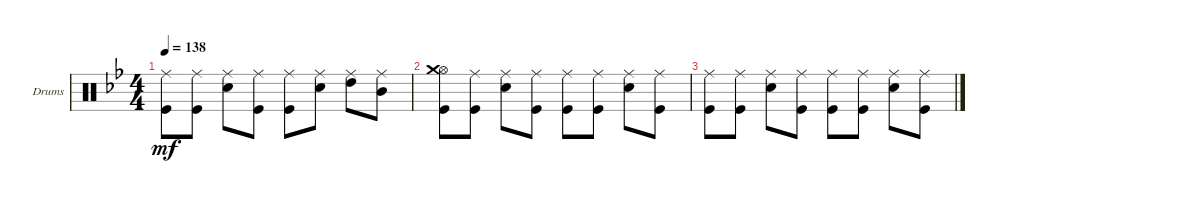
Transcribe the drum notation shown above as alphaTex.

\defaultSystemsLayout 4
\bracketExtendMode groupsimilarinstruments
\firstSystemTrackNameOrientation horizontal
\otherSystemsTrackNameOrientation horizontal
\track ("Drumkit" "Drums") {instrument percussion}
\staff {score}
\articulation defaults
\ts (4 4)
\tempo 138
\clef neutral
\ks gminor
("Kick (hit)" "Ride (middle)").8{dy mf} ("Ride (middle)" "Kick (hit)").8 ("Ride (middle)" "Snare (hit) 2").8 ("Ride (middle)" "Kick (hit)").8 ("Ride (middle)" "Kick (hit)").8 ("Ride (middle)" "Snare (hit) 2").8 ("Ride (middle)" "High Tom (hit)").8 ("Ride (middle)" "Mid Tom (hit)").8 |
("Kick (hit)" "Hi-Hat (open)" "Crash medium (hit)").8 ("Ride (middle)" "Kick (hit)").8 ("Ride (middle)" "Snare (hit) 2").8 ("Ride (middle)" "Kick (hit)").8 ("Ride (middle)" "Kick (hit)").8 ("Ride (middle)" "Kick (hit)").8 ("Ride (middle)" "Snare (hit) 2").8 ("Ride (middle)" "Kick (hit)").8 |
("Ride (middle)" "Kick (hit)").8 ("Ride (middle)" "Kick (hit)").8 ("Ride (middle)" "Snare (hit) 2").8 ("Ride (middle)" "Kick (hit)").8 ("Ride (middle)" "Kick (hit)").8 ("Ride (middle)" "Kick (hit)").8 ("Ride (middle)" "Snare (hit) 2").8 ("Ride (middle)" "Kick (hit)").8
